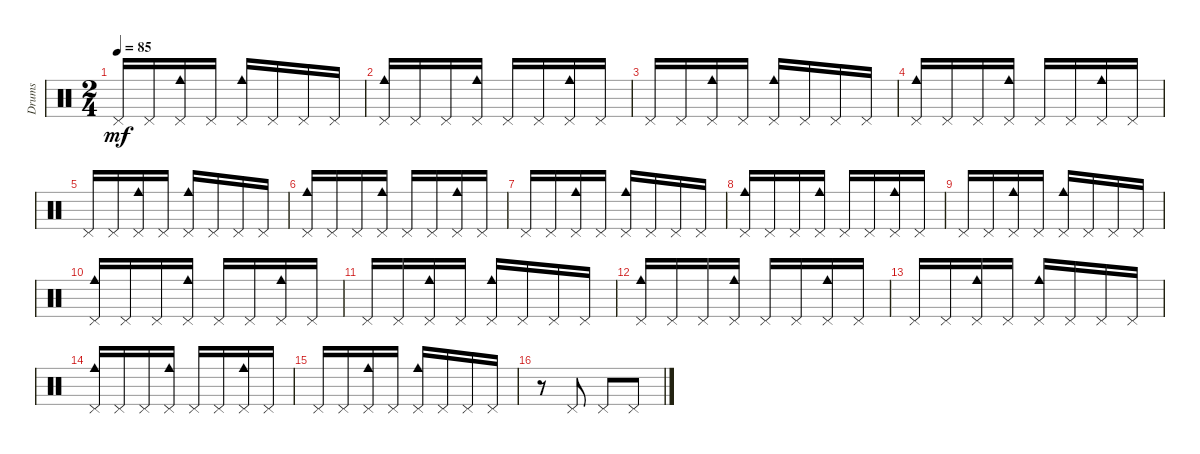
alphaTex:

\track ("Drums" "Drums") {instrument percussion}
\staff {score}
\articulation defaults
\ts (2 4)
\tempo 85
\clef neutral
\ks c "Pedal Hi-Hat (hit)".16{dy mf} "Pedal Hi-Hat (hit)".16
("Pedal Hi-Hat (hit)" "Cowbell medium (hit)").16 "Pedal Hi-Hat (hit)".16 ("Pedal Hi-Hat (hit)" "Cowbell medium (hit)").16 "Pedal Hi-Hat (hit)".16 "Pedal Hi-Hat (hit)".16 "Pedal Hi-Hat (hit)".16 |
("Cowbell medium (hit)" "Pedal Hi-Hat (hit)").16 "Pedal Hi-Hat (hit)".16 "Pedal Hi-Hat (hit)".16 ("Pedal Hi-Hat (hit)" "Cowbell medium (hit)").16 "Pedal Hi-Hat (hit)".16 "Pedal Hi-Hat (hit)".16 ("Pedal Hi-Hat (hit)" "Cowbell medium (hit)").16 "Pedal Hi-Hat (hit)".16 |
"Pedal Hi-Hat (hit)".16 "Pedal Hi-Hat (hit)".16 ("Pedal Hi-Hat (hit)" "Cowbell medium (hit)").16 "Pedal Hi-Hat (hit)".16 ("Pedal Hi-Hat (hit)" "Cowbell medium (hit)").16 "Pedal Hi-Hat (hit)".16 "Pedal Hi-Hat (hit)".16 "Pedal Hi-Hat (hit)".16 |
("Pedal Hi-Hat (hit)" "Cowbell medium (hit)").16 "Pedal Hi-Hat (hit)".16 "Pedal Hi-Hat (hit)".16 ("Pedal Hi-Hat (hit)" "Cowbell medium (hit)").16 "Pedal Hi-Hat (hit)".16 "Pedal Hi-Hat (hit)".16 ("Pedal Hi-Hat (hit)" "Cowbell medium (hit)").16 "Pedal Hi-Hat (hit)".16 |
"Pedal Hi-Hat (hit)".16 "Pedal Hi-Hat (hit)".16 ("Pedal Hi-Hat (hit)" "Cowbell medium (hit)").16 "Pedal Hi-Hat (hit)".16 ("Pedal Hi-Hat (hit)" "Cowbell medium (hit)").16 "Pedal Hi-Hat (hit)".16 "Pedal Hi-Hat (hit)".16 "Pedal Hi-Hat (hit)".16 |
("Pedal Hi-Hat (hit)" "Cowbell medium (hit)").16 "Pedal Hi-Hat (hit)".16 "Pedal Hi-Hat (hit)".16 ("Pedal Hi-Hat (hit)" "Cowbell medium (hit)").16 "Pedal Hi-Hat (hit)".16 "Pedal Hi-Hat (hit)".16 ("Pedal Hi-Hat (hit)" "Cowbell medium (hit)").16 "Pedal Hi-Hat (hit)".16 |
"Pedal Hi-Hat (hit)".16 "Pedal Hi-Hat (hit)".16 ("Pedal Hi-Hat (hit)" "Cowbell medium (hit)").16 "Pedal Hi-Hat (hit)".16 ("Pedal Hi-Hat (hit)" "Cowbell medium (hit)").16 "Pedal Hi-Hat (hit)".16 "Pedal Hi-Hat (hit)".16 "Pedal Hi-Hat (hit)".16 |
("Pedal Hi-Hat (hit)" "Cowbell medium (hit)").16 "Pedal Hi-Hat (hit)".16 "Pedal Hi-Hat (hit)".16 ("Pedal Hi-Hat (hit)" "Cowbell medium (hit)").16 "Pedal Hi-Hat (hit)".16 "Pedal Hi-Hat (hit)".16 ("Cowbell medium (hit)" "Pedal Hi-Hat (hit)").16 "Pedal Hi-Hat (hit)".16 |
"Pedal Hi-Hat (hit)".16 "Pedal Hi-Hat (hit)".16 ("Pedal Hi-Hat (hit)" "Cowbell medium (hit)").16 "Pedal Hi-Hat (hit)".16 ("Pedal Hi-Hat (hit)" "Cowbell medium (hit)").16 "Pedal Hi-Hat (hit)".16 "Pedal Hi-Hat (hit)".16 "Pedal Hi-Hat (hit)".16 |
("Cowbell medium (hit)" "Pedal Hi-Hat (hit)").16 "Pedal Hi-Hat (hit)".16 "Pedal Hi-Hat (hit)".16 ("Pedal Hi-Hat (hit)" "Cowbell medium (hit)").16 "Pedal Hi-Hat (hit)".16 "Pedal Hi-Hat (hit)".16 ("Pedal Hi-Hat (hit)" "Cowbell medium (hit)").16 "Pedal Hi-Hat (hit)".16 |
"Pedal Hi-Hat (hit)".16 "Pedal Hi-Hat (hit)".16 ("Pedal Hi-Hat (hit)" "Cowbell medium (hit)").16 "Pedal Hi-Hat (hit)".16 ("Pedal Hi-Hat (hit)" "Cowbell medium (hit)").16 "Pedal Hi-Hat (hit)".16 "Pedal Hi-Hat (hit)".16 "Pedal Hi-Hat (hit)".16 |
("Pedal Hi-Hat (hit)" "Cowbell medium (hit)").16 "Pedal Hi-Hat (hit)".16 "Pedal Hi-Hat (hit)".16 ("Pedal Hi-Hat (hit)" "Cowbell medium (hit)").16 "Pedal Hi-Hat (hit)".16 "Pedal Hi-Hat (hit)".16 ("Pedal Hi-Hat (hit)" "Cowbell medium (hit)").16 "Pedal Hi-Hat (hit)".16 |
"Pedal Hi-Hat (hit)".16 "Pedal Hi-Hat (hit)".16 ("Pedal Hi-Hat (hit)" "Cowbell medium (hit)").16 "Pedal Hi-Hat (hit)".16 ("Pedal Hi-Hat (hit)" "Cowbell medium (hit)").16 "Pedal Hi-Hat (hit)".16 "Pedal Hi-Hat (hit)".16 "Pedal Hi-Hat (hit)".16 |
("Pedal Hi-Hat (hit)" "Cowbell medium (hit)").16 "Pedal Hi-Hat (hit)".16 "Pedal Hi-Hat (hit)".16 ("Pedal Hi-Hat (hit)" "Cowbell medium (hit)").16 "Pedal Hi-Hat (hit)".16 "Pedal Hi-Hat (hit)".16 ("Pedal Hi-Hat (hit)" "Cowbell medium (hit)").16 "Pedal Hi-Hat (hit)".16 |
"Pedal Hi-Hat (hit)".16 "Pedal Hi-Hat (hit)".16 ("Pedal Hi-Hat (hit)" "Cowbell medium (hit)").16 "Pedal Hi-Hat (hit)".16 ("Pedal Hi-Hat (hit)" "Cowbell medium (hit)").16 "Pedal Hi-Hat (hit)".16 "Pedal Hi-Hat (hit)".16 "Pedal Hi-Hat (hit)".16 |
r.8 "Pedal Hi-Hat (hit)".8 "Pedal Hi-Hat (hit)".8 "Pedal Hi-Hat (hit)".8
